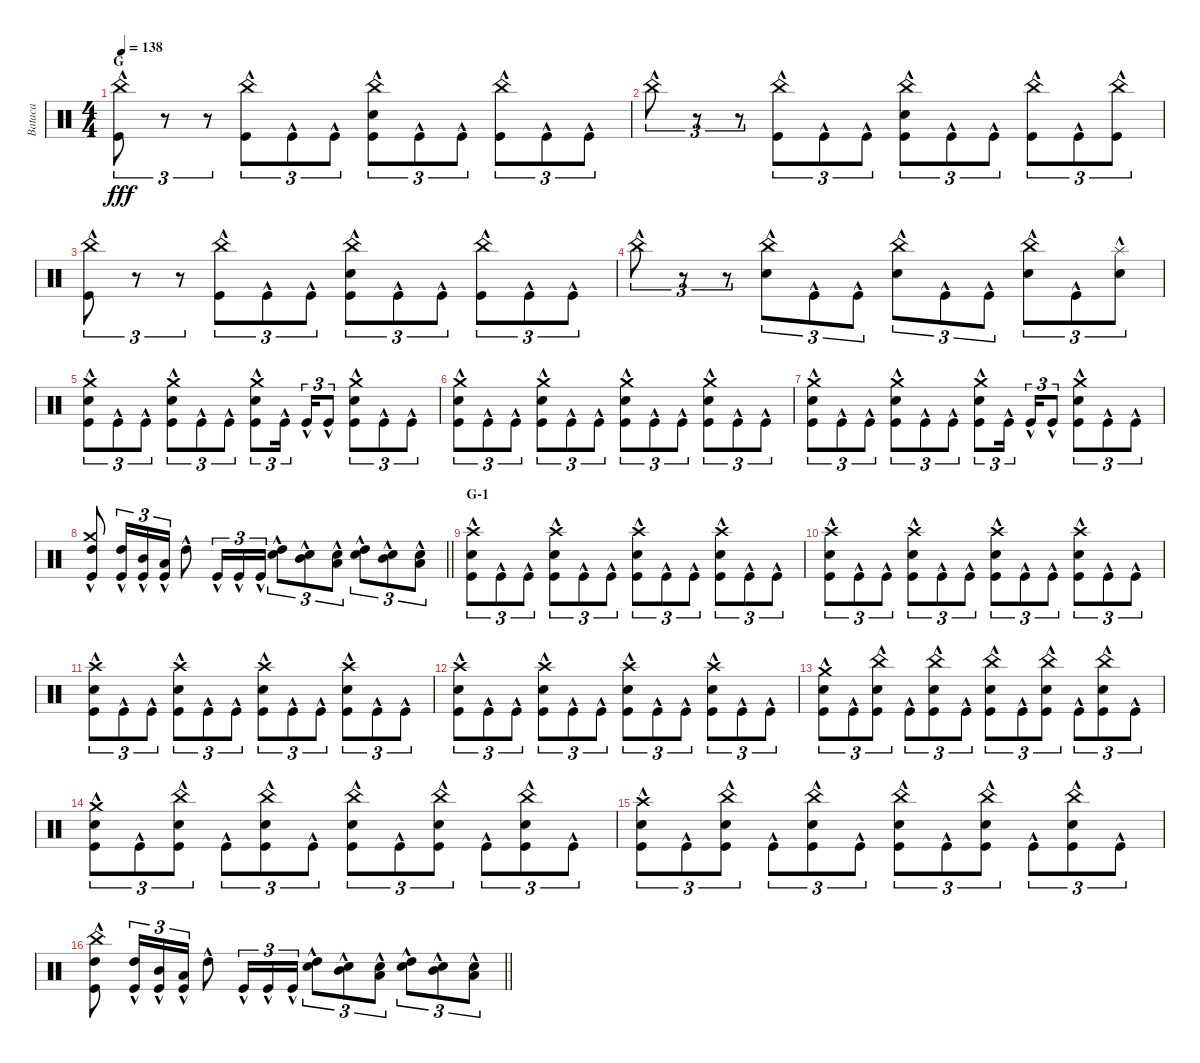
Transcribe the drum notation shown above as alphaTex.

\track ("Bataca" "Bataca") {instrument percussion}
\staff {score}
\articulation defaults
\ts (4 4)
\section ("" "G")
\tempo 138
\clef neutral
\ks c
("China (hit)"{hac} "Kick (hit)"{hac}).8{tu (3 2) dy fff} r.8{tu (3 2)} r.8{tu (3 2)} ("China (hit)"{hac} "Kick (hit)"{hac}).8{tu (3 2)} "Kick (hit)"{hac}.8{tu (3 2)} "Kick (hit)"{hac}.8{tu (3 2)} ("China (hit)"{hac} "Electric Snare (hit)"{hac} "Kick (hit)"{hac}).8{tu (3 2)} "Kick (hit)"{hac}.8{tu (3 2)} "Kick (hit)"{hac}.8{tu (3 2)} ("China (hit)"{hac} "Kick (hit)"{hac}).8{tu (3 2)} "Kick (hit)"{hac}.8{tu (3 2)} "Kick (hit)"{hac}.8{tu (3 2)} |
"China (hit)"{hac}.8{tu (3 2)} r.8{tu (3 2)} r.8{tu (3 2)} ("China (hit)"{hac} "Kick (hit)"{hac}).8{tu (3 2)} "Kick (hit)"{hac}.8{tu (3 2)} "Kick (hit)"{hac}.8{tu (3 2)} ("China (hit)"{hac} "Electric Snare (hit)"{hac} "Kick (hit)"{hac}).8{tu (3 2)} "Kick (hit)"{hac}.8{tu (3 2)} "Kick (hit)"{hac}.8{tu (3 2)} ("China (hit)"{hac} "Kick (hit)"{hac}).8{tu (3 2)} "Kick (hit)"{hac}.8{tu (3 2)} ("China (hit)"{hac} "Kick (hit)"{hac}).8{tu (3 2)} |
("China (hit)"{hac} "Kick (hit)"{hac}).8{tu (3 2)} r.8{tu (3 2)} r.8{tu (3 2)} ("China (hit)"{hac} "Kick (hit)"{hac}).8{tu (3 2)} "Kick (hit)"{hac}.8{tu (3 2)} "Kick (hit)"{hac}.8{tu (3 2)} ("China (hit)"{hac} "Electric Snare (hit)"{hac} "Kick (hit)"{hac}).8{tu (3 2)} "Kick (hit)"{hac}.8{tu (3 2)} "Kick (hit)"{hac}.8{tu (3 2)} ("China (hit)"{hac} "Kick (hit)"{hac}).8{tu (3 2)} "Kick (hit)"{hac}.8{tu (3 2)} "Kick (hit)"{hac}.8{tu (3 2)} |
"China (hit)"{hac}.8{tu (3 2)} r.8{tu (3 2)} r.8{tu (3 2)} ("China (hit)"{hac} "Electric Snare (hit)"{hac}).8{tu (3 2)} "Kick (hit)"{hac}.8{tu (3 2)} "Kick (hit)"{hac}.8{tu (3 2)} ("China (hit)"{hac} "Electric Snare (hit)"{hac}).8{tu (3 2)} "Kick (hit)"{hac}.8{tu (3 2)} "Kick (hit)"{hac}.8{tu (3 2)} ("China (hit)"{hac} "Electric Snare (hit)"{hac}).8{tu (3 2)} "Kick (hit)"{hac}.8{tu (3 2)} ("Splash (hit)"{hac} "Electric Snare (hit)"{hac}).8{tu (3 2)} |
("Crash medium (hit)"{hac} "Electric Snare (hit)"{hac} "Kick (hit)"{hac}).8{tu (3 2)} "Kick (hit)"{hac}.8{tu (3 2)} "Kick (hit)"{hac}.8{tu (3 2)} ("Crash medium (hit)"{hac} "Electric Snare (hit)"{hac} "Kick (hit)"{hac}).8{tu (3 2)} "Kick (hit)"{hac}.8{tu (3 2)} "Kick (hit)"{hac}.8{tu (3 2)} ("Crash medium (hit)"{hac} "Electric Snare (hit)"{hac} "Kick (hit)"{hac}).8{tu (3 2)} "Kick (hit)"{hac}.16{tu (3 2) beam splitsecondary} "Kick (hit)"{hac}.16{tu (3 2)} "Kick (hit)"{hac}.8{tu (3 2)} ("Crash medium (hit)"{hac} "Electric Snare (hit)"{hac} "Kick (hit)"{hac}).8{tu (3 2)} "Kick (hit)"{hac}.8{tu (3 2)} "Kick (hit)"{hac}.8{tu (3 2)} |
("Crash medium (hit)"{hac} "Electric Snare (hit)"{hac} "Kick (hit)"{hac}).8{tu (3 2)} "Kick (hit)"{hac}.8{tu (3 2)} "Kick (hit)"{hac}.8{tu (3 2)} ("Crash medium (hit)"{hac} "Electric Snare (hit)"{hac} "Kick (hit)"{hac}).8{tu (3 2)} "Kick (hit)"{hac}.8{tu (3 2)} "Kick (hit)"{hac}.8{tu (3 2)} ("Crash medium (hit)"{hac} "Electric Snare (hit)"{hac} "Kick (hit)"{hac}).8{tu (3 2)} "Kick (hit)"{hac}.8{tu (3 2)} "Kick (hit)"{hac}.8{tu (3 2)} ("Crash medium (hit)"{hac} "Electric Snare (hit)"{hac} "Kick (hit)"{hac}).8{tu (3 2)} "Kick (hit)"{hac}.8{tu (3 2)} "Kick (hit)"{hac}.8{tu (3 2)} |
("Crash medium (hit)"{hac} "Electric Snare (hit)"{hac} "Kick (hit)"{hac}).8{tu (3 2)} "Kick (hit)"{hac}.8{tu (3 2)} "Kick (hit)"{hac}.8{tu (3 2)} ("Crash medium (hit)"{hac} "Electric Snare (hit)"{hac} "Kick (hit)"{hac}).8{tu (3 2)} "Kick (hit)"{hac}.8{tu (3 2)} "Kick (hit)"{hac}.8{tu (3 2)} ("Crash medium (hit)"{hac} "Electric Snare (hit)"{hac} "Kick (hit)"{hac}).8{tu (3 2)} "Kick (hit)"{hac}.16{tu (3 2) beam splitsecondary} "Kick (hit)"{hac}.16{tu (3 2)} "Kick (hit)"{hac}.8{tu (3 2)} ("Crash medium (hit)"{hac} "Electric Snare (hit)"{hac} "Kick (hit)"{hac}).8{tu (3 2)} "Kick (hit)"{hac}.8{tu (3 2)} "Kick (hit)"{hac}.8{tu (3 2)} |
\barLineRight lightlight
("Crash medium (hit)"{hac} "High Tom (hit)"{hac} "Kick (hit)"{hac}).8 ("High Tom (hit)"{hac} "Kick (hit)"{hac}).16{tu (3 2)} ("Mid Tom (hit)"{hac} "Kick (hit)"{hac}).16{tu (3 2)} ("Low Tom (hit)"{hac} "Kick (hit)"{hac}).16{tu (3 2)} "High Tom (hit)"{hac}.8 "Kick (hit)"{hac}.16{tu (3 2)} "Kick (hit)"{hac}.16{tu (3 2)} "Kick (hit)"{hac}.16{tu (3 2)} ("High Tom (hit)"{hac} "Electric Snare (hit)"{hac}).8{tu (3 2)} ("Mid Tom (hit)"{hac} "Electric Snare (hit)"{hac}).8{tu (3 2)} ("Low Tom (hit)"{hac} "Electric Snare (hit)"{hac}).8{tu (3 2)} ("High Tom (hit)"{hac} "Electric Snare (hit)"{hac}).8{tu (3 2)} ("Mid Tom (hit)"{hac} "Electric Snare (hit)"{hac}).8{tu (3 2)} ("Low Tom (hit)"{hac} "Electric Snare (hit)"{hac}).8{tu (3 2)} |
\section ("" "G-1")
("Crash high (hit)"{hac} "Electric Snare (hit)"{hac} "Kick (hit)"{hac}).8{tu (3 2)} "Kick (hit)"{hac}.8{tu (3 2)} "Kick (hit)"{hac}.8{tu (3 2)} ("Crash high (hit)"{hac} "Electric Snare (hit)"{hac} "Kick (hit)"{hac}).8{tu (3 2)} "Kick (hit)"{hac}.8{tu (3 2)} "Kick (hit)"{hac}.8{tu (3 2)} ("Crash high (hit)"{hac} "Electric Snare (hit)"{hac} "Kick (hit)"{hac}).8{tu (3 2)} "Kick (hit)"{hac}.8{tu (3 2)} "Kick (hit)"{hac}.8{tu (3 2)} ("Crash high (hit)"{hac} "Electric Snare (hit)"{hac} "Kick (hit)"{hac}).8{tu (3 2)} "Kick (hit)"{hac}.8{tu (3 2)} "Kick (hit)"{hac}.8{tu (3 2)} |
("Crash high (hit)"{hac} "Electric Snare (hit)"{hac} "Kick (hit)"{hac}).8{tu (3 2)} "Kick (hit)"{hac}.8{tu (3 2)} "Kick (hit)"{hac}.8{tu (3 2)} ("Crash high (hit)"{hac} "Electric Snare (hit)"{hac} "Kick (hit)"{hac}).8{tu (3 2)} "Kick (hit)"{hac}.8{tu (3 2)} "Kick (hit)"{hac}.8{tu (3 2)} ("Crash high (hit)"{hac} "Electric Snare (hit)"{hac} "Kick (hit)"{hac}).8{tu (3 2)} "Kick (hit)"{hac}.8{tu (3 2)} "Kick (hit)"{hac}.8{tu (3 2)} ("Crash high (hit)"{hac} "Electric Snare (hit)"{hac} "Kick (hit)"{hac}).8{tu (3 2)} "Kick (hit)"{hac}.8{tu (3 2)} "Kick (hit)"{hac}.8{tu (3 2)} |
("Crash high (hit)"{hac} "Electric Snare (hit)"{hac} "Kick (hit)"{hac}).8{tu (3 2)} "Kick (hit)"{hac}.8{tu (3 2)} "Kick (hit)"{hac}.8{tu (3 2)} ("Crash high (hit)"{hac} "Electric Snare (hit)"{hac} "Kick (hit)"{hac}).8{tu (3 2)} "Kick (hit)"{hac}.8{tu (3 2)} "Kick (hit)"{hac}.8{tu (3 2)} ("Crash high (hit)"{hac} "Electric Snare (hit)"{hac} "Kick (hit)"{hac}).8{tu (3 2)} "Kick (hit)"{hac}.8{tu (3 2)} "Kick (hit)"{hac}.8{tu (3 2)} ("Crash high (hit)"{hac} "Electric Snare (hit)"{hac} "Kick (hit)"{hac}).8{tu (3 2)} "Kick (hit)"{hac}.8{tu (3 2)} "Kick (hit)"{hac}.8{tu (3 2)} |
("Crash high (hit)"{hac} "Electric Snare (hit)"{hac} "Kick (hit)"{hac}).8{tu (3 2)} "Kick (hit)"{hac}.8{tu (3 2)} "Kick (hit)"{hac}.8{tu (3 2)} ("Crash high (hit)"{hac} "Electric Snare (hit)"{hac} "Kick (hit)"{hac}).8{tu (3 2)} "Kick (hit)"{hac}.8{tu (3 2)} "Kick (hit)"{hac}.8{tu (3 2)} ("Crash high (hit)"{hac} "Electric Snare (hit)"{hac} "Kick (hit)"{hac}).8{tu (3 2)} "Kick (hit)"{hac}.8{tu (3 2)} "Kick (hit)"{hac}.8{tu (3 2)} ("Crash high (hit)"{hac} "Electric Snare (hit)"{hac} "Kick (hit)"{hac}).8{tu (3 2)} "Kick (hit)"{hac}.8{tu (3 2)} "Kick (hit)"{hac}.8{tu (3 2)} |
("Crash medium (hit)"{hac} "Electric Snare (hit)"{hac} "Kick (hit)"{hac}).8{tu (3 2)} "Kick (hit)"{hac}.8{tu (3 2)} ("China (hit)"{hac} "Electric Snare (hit)"{hac} "Kick (hit)"{hac}).8{tu (3 2)} "Kick (hit)"{hac}.8{tu (3 2)} ("China (hit)"{hac} "Electric Snare (hit)"{hac} "Kick (hit)"{hac}).8{tu (3 2)} "Kick (hit)"{hac}.8{tu (3 2)} ("China (hit)"{hac} "Electric Snare (hit)"{hac} "Kick (hit)"{hac}).8{tu (3 2)} "Kick (hit)"{hac}.8{tu (3 2)} ("China (hit)"{hac} "Electric Snare (hit)"{hac} "Kick (hit)"{hac}).8{tu (3 2)} "Kick (hit)"{hac}.8{tu (3 2)} ("China (hit)"{hac} "Electric Snare (hit)"{hac} "Kick (hit)"{hac}).8{tu (3 2)} "Kick (hit)"{hac}.8{tu (3 2)} |
("Crash medium (hit)"{hac} "Electric Snare (hit)"{hac} "Kick (hit)"{hac}).8{tu (3 2)} "Kick (hit)"{hac}.8{tu (3 2)} ("China (hit)"{hac} "Electric Snare (hit)"{hac} "Kick (hit)"{hac}).8{tu (3 2)} "Kick (hit)"{hac}.8{tu (3 2)} ("China (hit)"{hac} "Electric Snare (hit)"{hac} "Kick (hit)"{hac}).8{tu (3 2)} "Kick (hit)"{hac}.8{tu (3 2)} ("China (hit)"{hac} "Electric Snare (hit)"{hac} "Kick (hit)"{hac}).8{tu (3 2)} "Kick (hit)"{hac}.8{tu (3 2)} ("China (hit)"{hac} "Electric Snare (hit)"{hac} "Kick (hit)"{hac}).8{tu (3 2)} "Kick (hit)"{hac}.8{tu (3 2)} ("China (hit)"{hac} "Electric Snare (hit)"{hac} "Kick (hit)"{hac}).8{tu (3 2)} "Kick (hit)"{hac}.8{tu (3 2)} |
("Crash high (hit)"{hac} "Electric Snare (hit)"{hac} "Kick (hit)"{hac}).8{tu (3 2)} "Kick (hit)"{hac}.8{tu (3 2)} ("China (hit)"{hac} "Electric Snare (hit)"{hac} "Kick (hit)"{hac}).8{tu (3 2)} "Kick (hit)"{hac}.8{tu (3 2)} ("China (hit)"{hac} "Electric Snare (hit)"{hac} "Kick (hit)"{hac}).8{tu (3 2)} "Kick (hit)"{hac}.8{tu (3 2)} ("China (hit)"{hac} "Electric Snare (hit)"{hac} "Kick (hit)"{hac}).8{tu (3 2)} "Kick (hit)"{hac}.8{tu (3 2)} ("China (hit)"{hac} "Electric Snare (hit)"{hac} "Kick (hit)"{hac}).8{tu (3 2)} "Kick (hit)"{hac}.8{tu (3 2)} ("China (hit)"{hac} "Electric Snare (hit)"{hac} "Kick (hit)"{hac}).8{tu (3 2)} "Kick (hit)"{hac}.8{tu (3 2)} |
\barLineRight lightlight
("China (hit)"{hac} "High Tom (hit)"{hac} "Kick (hit)"{hac}).8 ("High Tom (hit)"{hac} "Kick (hit)"{hac}).16{tu (3 2)} ("Mid Tom (hit)"{hac} "Kick (hit)"{hac}).16{tu (3 2)} ("Low Tom (hit)"{hac} "Kick (hit)"{hac}).16{tu (3 2)} "High Tom (hit)"{hac}.8 "Kick (hit)"{hac}.16{tu (3 2)} "Kick (hit)"{hac}.16{tu (3 2)} "Kick (hit)"{hac}.16{tu (3 2)} ("High Tom (hit)"{hac} "Electric Snare (hit)"{hac}).8{tu (3 2)} ("Mid Tom (hit)"{hac} "Electric Snare (hit)"{hac}).8{tu (3 2)} ("Low Tom (hit)"{hac} "Electric Snare (hit)"{hac}).8{tu (3 2)} ("High Tom (hit)"{hac} "Electric Snare (hit)"{hac}).8{tu (3 2)} ("Mid Tom (hit)"{hac} "Electric Snare (hit)"{hac}).8{tu (3 2)} ("Low Tom (hit)"{hac} "Electric Snare (hit)"{hac}).8{tu (3 2)}
